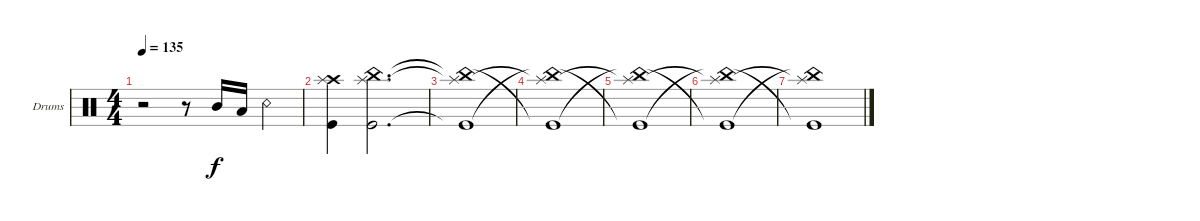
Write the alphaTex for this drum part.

\defaultSystemsLayout 4
\bracketExtendMode groupsimilarinstruments
\firstSystemTrackNameOrientation horizontal
\otherSystemsTrackNameOrientation horizontal
\track ("Drumkit" "Drums") {instrument percussion}
\staff {score}
\articulation defaults
\ts (4 4)
\tempo 135
\clef neutral
\ks c
r.2{dy f} r.8 "Mid Tom (hit)".16 "Low Tom (hit)".16 "Snare (rim shot)".4 |
("Kick (hit)" "Crash high (hit)" "Splash (hit)").4 ("Kick (hit)" "Splash (hit)" "China (hit)").2{d} |
("Kick (hit)"{t} "Splash (hit)"{t} "China (hit)"{t}).1 |
("China (hit)"{t} "Splash (hit)"{t} "Kick (hit)"{t}).1 |
("Kick (hit)"{t} "Splash (hit)"{t} "China (hit)"{t}).1 |
("China (hit)"{t} "Splash (hit)"{t} "Kick (hit)"{t}).1 |
("Kick (hit)"{t} "Splash (hit)"{t} "China (hit)"{t}).1
